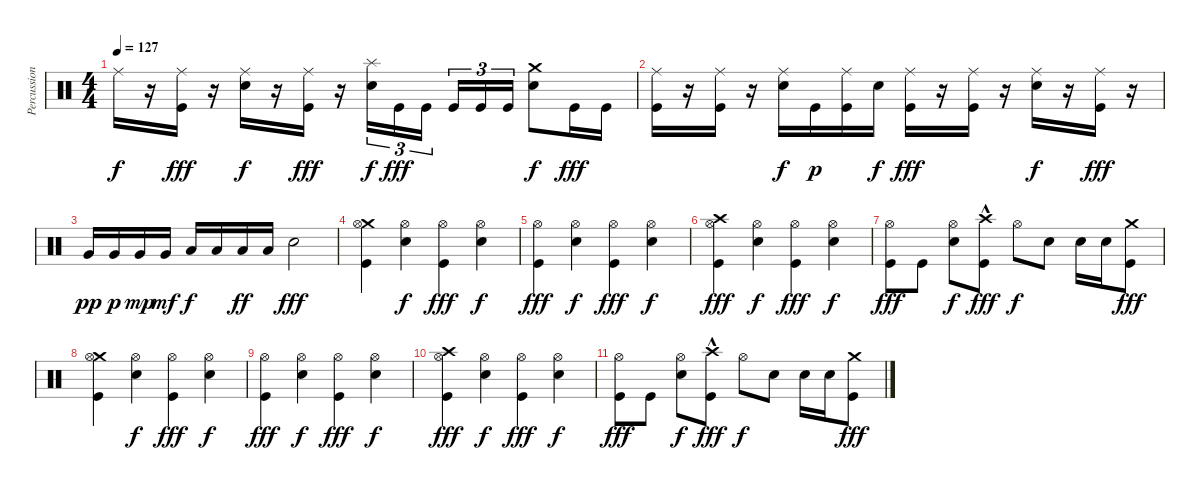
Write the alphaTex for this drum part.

\track ("Percussion" "Percussion") {instrument percussion}
\staff {score}
\articulation defaults
\ts (4 4)
\tempo 127
\clef neutral
\ks c "Ride (middle)".16{dy f}
r.16 ("Ride (middle)" "Kick (hit)").16{dy fff} r.16 ("Ride (middle)" "Electric Snare (hit)").16{dy f} r.16 ("Ride (middle)" "Kick (hit)").16{dy fff} r.16 ("Splash (hit)" "Electric Snare (hit)").16{tu (3 2) dy f} "Kick (hit)".16{tu (3 2) dy fff} "Kick (hit)".16{tu (3 2)} "Kick (hit)".16{tu (3 2)} "Kick (hit)".16{tu (3 2)} "Kick (hit)".16{tu (3 2)} ("Crash medium (hit)" "Electric Snare (hit)").8{dy f} "Kick (hit)".16{dy fff} "Kick (hit)".16 |
("Ride (middle)" "Kick (hit)").16 r.16 ("Ride (middle)" "Kick (hit)").16 r.16 ("Ride (middle)" "Electric Snare (hit)").16{dy f} "Kick (hit)".16{dy p} ("Ride (middle)" "Kick (hit)").16 "Electric Snare (hit)".16{dy f} ("Ride (middle)" "Kick (hit)").16{dy fff} r.16 ("Ride (middle)" "Kick (hit)").16 r.16 ("Ride (middle)" "Electric Snare (hit)").16{dy f} r.16 ("Ride (middle)" "Kick (hit)").16{dy fff} r.16 |
"Very Low Tom (hit)".16{dy pp} "Very Low Tom (hit)".16{dy p} "Very Low Tom (hit)".16{dy mp} "Very Low Tom (hit)".16{dy mf} "Low Floor Tom (hit)".16{dy f} "Low Floor Tom (hit)".16 "Low Floor Tom (hit)".16{dy ff} "Low Floor Tom (hit)".16 "Electric Snare (hit)".2{dy fff} |
("Crash medium (hit)" "Hi-Hat (open)" "Kick (hit)").4 ("Electric Snare (hit)" "Hi-Hat (open)").4{dy f} ("Hi-Hat (open)" "Kick (hit)").4{dy fff} ("Electric Snare (hit)" "Hi-Hat (open)").4{dy f} |
("Hi-Hat (open)" "Kick (hit)").4{dy fff} ("Electric Snare (hit)" "Hi-Hat (open)").4{dy f} ("Hi-Hat (open)" "Kick (hit)").4{dy fff} ("Electric Snare (hit)" "Hi-Hat (open)").4{dy f} |
("Crash high (hit)" "Hi-Hat (open)" "Kick (hit)").4{dy fff} ("Electric Snare (hit)" "Hi-Hat (open)").4{dy f} ("Hi-Hat (open)" "Kick (hit)").4{dy fff} ("Electric Snare (hit)" "Hi-Hat (open)").4{dy f} |
("Hi-Hat (open)" "Kick (hit)").8{dy fff} "Kick (hit)".8 ("Electric Snare (hit)" "Hi-Hat (open)").8{dy f} ("Crash high (hit)" "Kick (hit)"{hac}).8{dy fff} "Hi-Hat (open)".8{dy f} "Electric Snare (hit)".8 "Electric Snare (hit)".16 "Electric Snare (hit)".16 ("Crash medium (hit)" "Kick (hit)").8{dy fff} |
("Crash medium (hit)" "Hi-Hat (open)" "Kick (hit)").4 ("Electric Snare (hit)" "Hi-Hat (open)").4{dy f} ("Hi-Hat (open)" "Kick (hit)").4{dy fff} ("Electric Snare (hit)" "Hi-Hat (open)").4{dy f} |
("Hi-Hat (open)" "Kick (hit)").4{dy fff} ("Electric Snare (hit)" "Hi-Hat (open)").4{dy f} ("Hi-Hat (open)" "Kick (hit)").4{dy fff} ("Electric Snare (hit)" "Hi-Hat (open)").4{dy f} |
("Crash high (hit)" "Hi-Hat (open)" "Kick (hit)").4{dy fff} ("Electric Snare (hit)" "Hi-Hat (open)").4{dy f} ("Hi-Hat (open)" "Kick (hit)").4{dy fff} ("Electric Snare (hit)" "Hi-Hat (open)").4{dy f} |
("Hi-Hat (open)" "Kick (hit)").8{dy fff} "Kick (hit)".8 ("Electric Snare (hit)" "Hi-Hat (open)").8{dy f} ("Crash high (hit)" "Kick (hit)"{hac}).8{dy fff} "Hi-Hat (open)".8{dy f} "Electric Snare (hit)".8 "Electric Snare (hit)".16 "Electric Snare (hit)".16 ("Crash medium (hit)" "Kick (hit)").8{dy fff}
